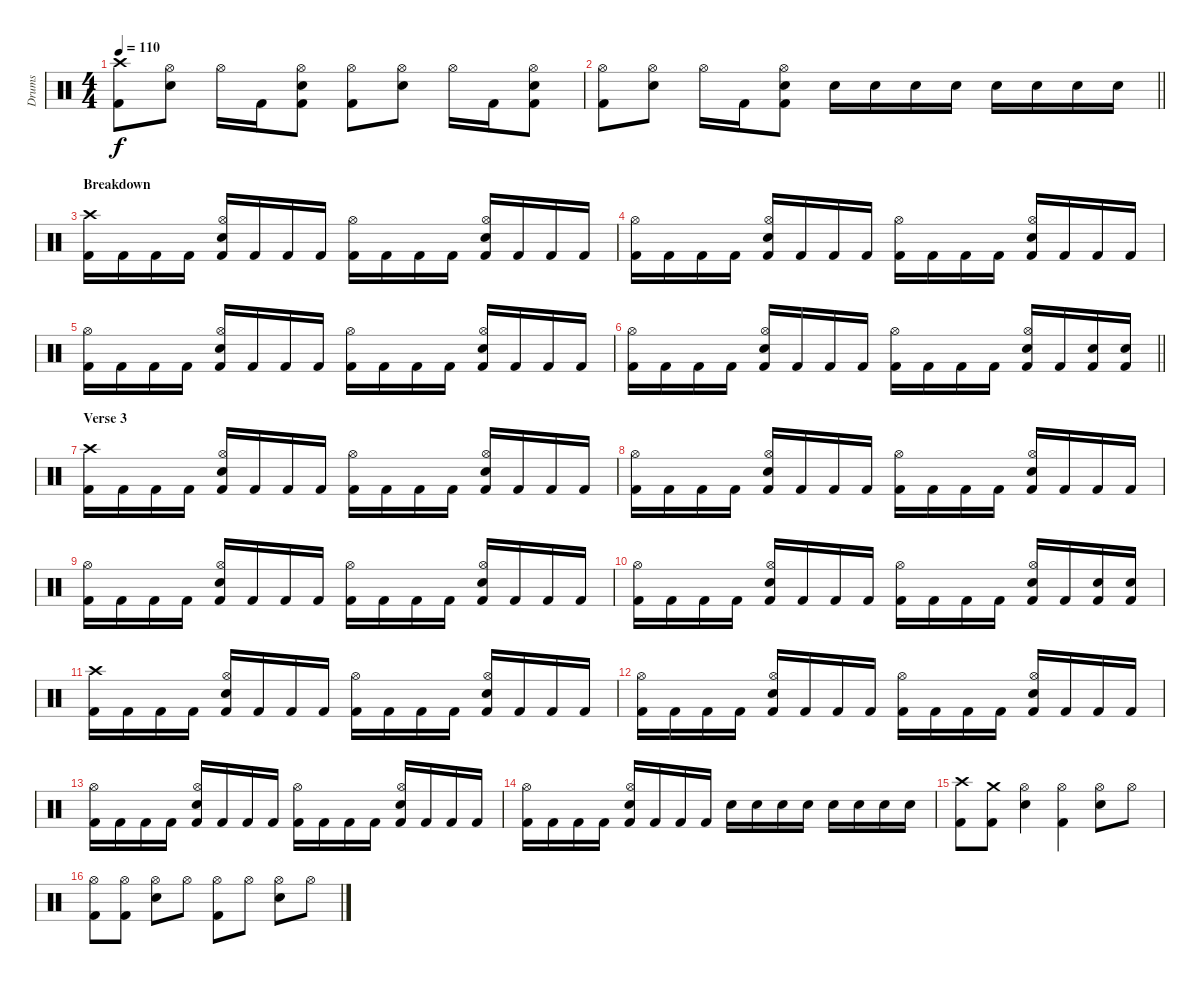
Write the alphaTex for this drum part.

\track ("Drums" "Drums") {instrument percussion}
\staff {score}
\articulation defaults
\ts (4 4)
\tempo 110
\clef neutral
\ks c
("Crash high (hit)" "Kick (hit) 2").8{dy f} ("Hi-Hat (open)" "Electric Snare (hit)").8 "Hi-Hat (open)".16 "Kick (hit) 2".16 ("Hi-Hat (open)" "Electric Snare (hit)" "Kick (hit) 2").8 ("Hi-Hat (open)" "Kick (hit) 2").8 ("Hi-Hat (open)" "Electric Snare (hit)").8 "Hi-Hat (open)".16 "Kick (hit) 2".16 ("Hi-Hat (open)" "Electric Snare (hit)" "Kick (hit) 2").8 |
\barLineRight lightlight
("Hi-Hat (open)" "Kick (hit) 2").8 ("Hi-Hat (open)" "Electric Snare (hit)").8 "Hi-Hat (open)".16 "Kick (hit) 2".16 ("Hi-Hat (open)" "Electric Snare (hit)" "Kick (hit) 2").8 "Electric Snare (hit)".16 "Electric Snare (hit)".16 "Electric Snare (hit)".16 "Electric Snare (hit)".16 "Electric Snare (hit)".16 "Electric Snare (hit)".16 "Electric Snare (hit)".16 "Electric Snare (hit)".16 |
\section ("" "Breakdown")
("Crash high (hit)" "Kick (hit) 2").16 "Kick (hit) 2".16 "Kick (hit) 2".16 "Kick (hit) 2".16 ("Hi-Hat (open)" "Electric Snare (hit)" "Kick (hit) 2").16 "Kick (hit) 2".16 "Kick (hit) 2".16 "Kick (hit) 2".16 ("Hi-Hat (open)" "Kick (hit) 2").16 "Kick (hit) 2".16 "Kick (hit) 2".16 "Kick (hit) 2".16 ("Hi-Hat (open)" "Electric Snare (hit)" "Kick (hit) 2").16 "Kick (hit) 2".16 "Kick (hit) 2".16 "Kick (hit) 2".16 |
("Hi-Hat (open)" "Kick (hit) 2").16 "Kick (hit) 2".16 "Kick (hit) 2".16 "Kick (hit) 2".16 ("Hi-Hat (open)" "Electric Snare (hit)" "Kick (hit) 2").16 "Kick (hit) 2".16 "Kick (hit) 2".16 "Kick (hit) 2".16 ("Hi-Hat (open)" "Kick (hit) 2").16 "Kick (hit) 2".16 "Kick (hit) 2".16 "Kick (hit) 2".16 ("Hi-Hat (open)" "Electric Snare (hit)" "Kick (hit) 2").16 "Kick (hit) 2".16 "Kick (hit) 2".16 "Kick (hit) 2".16 |
("Hi-Hat (open)" "Kick (hit) 2").16 "Kick (hit) 2".16 "Kick (hit) 2".16 "Kick (hit) 2".16 ("Hi-Hat (open)" "Electric Snare (hit)" "Kick (hit) 2").16 "Kick (hit) 2".16 "Kick (hit) 2".16 "Kick (hit) 2".16 ("Hi-Hat (open)" "Kick (hit) 2").16 "Kick (hit) 2".16 "Kick (hit) 2".16 "Kick (hit) 2".16 ("Hi-Hat (open)" "Electric Snare (hit)" "Kick (hit) 2").16 "Kick (hit) 2".16 "Kick (hit) 2".16 "Kick (hit) 2".16 |
\barLineRight lightlight
("Hi-Hat (open)" "Kick (hit) 2").16 "Kick (hit) 2".16 "Kick (hit) 2".16 "Kick (hit) 2".16 ("Hi-Hat (open)" "Electric Snare (hit)" "Kick (hit) 2").16 "Kick (hit) 2".16 "Kick (hit) 2".16 "Kick (hit) 2".16 ("Hi-Hat (open)" "Kick (hit) 2").16 "Kick (hit) 2".16 "Kick (hit) 2".16 "Kick (hit) 2".16 ("Hi-Hat (open)" "Electric Snare (hit)" "Kick (hit) 2").16 "Kick (hit) 2".16 ("Electric Snare (hit)" "Kick (hit) 2").16 ("Electric Snare (hit)" "Kick (hit) 2").16 |
\section ("" "Verse 3")
("Crash high (hit)" "Kick (hit) 2").16 "Kick (hit) 2".16 "Kick (hit) 2".16 "Kick (hit) 2".16 ("Hi-Hat (open)" "Electric Snare (hit)" "Kick (hit) 2").16 "Kick (hit) 2".16 "Kick (hit) 2".16 "Kick (hit) 2".16 ("Hi-Hat (open)" "Kick (hit) 2").16 "Kick (hit) 2".16 "Kick (hit) 2".16 "Kick (hit) 2".16 ("Hi-Hat (open)" "Electric Snare (hit)" "Kick (hit) 2").16 "Kick (hit) 2".16 "Kick (hit) 2".16 "Kick (hit) 2".16 |
("Hi-Hat (open)" "Kick (hit) 2").16 "Kick (hit) 2".16 "Kick (hit) 2".16 "Kick (hit) 2".16 ("Hi-Hat (open)" "Electric Snare (hit)" "Kick (hit) 2").16 "Kick (hit) 2".16 "Kick (hit) 2".16 "Kick (hit) 2".16 ("Hi-Hat (open)" "Kick (hit) 2").16 "Kick (hit) 2".16 "Kick (hit) 2".16 "Kick (hit) 2".16 ("Hi-Hat (open)" "Electric Snare (hit)" "Kick (hit) 2").16 "Kick (hit) 2".16 "Kick (hit) 2".16 "Kick (hit) 2".16 |
("Hi-Hat (open)" "Kick (hit) 2").16 "Kick (hit) 2".16 "Kick (hit) 2".16 "Kick (hit) 2".16 ("Hi-Hat (open)" "Electric Snare (hit)" "Kick (hit) 2").16 "Kick (hit) 2".16 "Kick (hit) 2".16 "Kick (hit) 2".16 ("Hi-Hat (open)" "Kick (hit) 2").16 "Kick (hit) 2".16 "Kick (hit) 2".16 "Kick (hit) 2".16 ("Hi-Hat (open)" "Electric Snare (hit)" "Kick (hit) 2").16 "Kick (hit) 2".16 "Kick (hit) 2".16 "Kick (hit) 2".16 |
("Hi-Hat (open)" "Kick (hit) 2").16 "Kick (hit) 2".16 "Kick (hit) 2".16 "Kick (hit) 2".16 ("Hi-Hat (open)" "Electric Snare (hit)" "Kick (hit) 2").16 "Kick (hit) 2".16 "Kick (hit) 2".16 "Kick (hit) 2".16 ("Hi-Hat (open)" "Kick (hit) 2").16 "Kick (hit) 2".16 "Kick (hit) 2".16 "Kick (hit) 2".16 ("Hi-Hat (open)" "Electric Snare (hit)" "Kick (hit) 2").16 "Kick (hit) 2".16 ("Electric Snare (hit)" "Kick (hit) 2").16 ("Electric Snare (hit)" "Kick (hit) 2").16 |
("Crash high (hit)" "Kick (hit) 2").16 "Kick (hit) 2".16 "Kick (hit) 2".16 "Kick (hit) 2".16 ("Hi-Hat (open)" "Electric Snare (hit)" "Kick (hit) 2").16 "Kick (hit) 2".16 "Kick (hit) 2".16 "Kick (hit) 2".16 ("Hi-Hat (open)" "Kick (hit) 2").16 "Kick (hit) 2".16 "Kick (hit) 2".16 "Kick (hit) 2".16 ("Hi-Hat (open)" "Electric Snare (hit)" "Kick (hit) 2").16 "Kick (hit) 2".16 "Kick (hit) 2".16 "Kick (hit) 2".16 |
("Hi-Hat (open)" "Kick (hit) 2").16 "Kick (hit) 2".16 "Kick (hit) 2".16 "Kick (hit) 2".16 ("Hi-Hat (open)" "Electric Snare (hit)" "Kick (hit) 2").16 "Kick (hit) 2".16 "Kick (hit) 2".16 "Kick (hit) 2".16 ("Hi-Hat (open)" "Kick (hit) 2").16 "Kick (hit) 2".16 "Kick (hit) 2".16 "Kick (hit) 2".16 ("Hi-Hat (open)" "Electric Snare (hit)" "Kick (hit) 2").16 "Kick (hit) 2".16 "Kick (hit) 2".16 "Kick (hit) 2".16 |
("Hi-Hat (open)" "Kick (hit) 2").16 "Kick (hit) 2".16 "Kick (hit) 2".16 "Kick (hit) 2".16 ("Hi-Hat (open)" "Electric Snare (hit)" "Kick (hit) 2").16 "Kick (hit) 2".16 "Kick (hit) 2".16 "Kick (hit) 2".16 ("Hi-Hat (open)" "Kick (hit) 2").16 "Kick (hit) 2".16 "Kick (hit) 2".16 "Kick (hit) 2".16 ("Hi-Hat (open)" "Electric Snare (hit)" "Kick (hit) 2").16 "Kick (hit) 2".16 "Kick (hit) 2".16 "Kick (hit) 2".16 |
("Hi-Hat (open)" "Kick (hit) 2").16 "Kick (hit) 2".16 "Kick (hit) 2".16 "Kick (hit) 2".16 ("Hi-Hat (open)" "Electric Snare (hit)" "Kick (hit) 2").16 "Kick (hit) 2".16 "Kick (hit) 2".16 "Kick (hit) 2".16 "Electric Snare (hit)".16 "Electric Snare (hit)".16 "Electric Snare (hit)".16 "Electric Snare (hit)".16 "Electric Snare (hit)".16 "Electric Snare (hit)".16 "Electric Snare (hit)".16 "Electric Snare (hit)".16 |
("Crash high (hit)" "Kick (hit) 2").8 ("Crash medium (hit)" "Kick (hit) 2").8 ("Hi-Hat (open)" "Electric Snare (hit)").4 ("Hi-Hat (open)" "Kick (hit) 2").4 ("Hi-Hat (open)" "Electric Snare (hit)").8 "Hi-Hat (open)".8 |
("Hi-Hat (open)" "Kick (hit) 2").8 ("Hi-Hat (open)" "Kick (hit) 2").8 ("Hi-Hat (open)" "Electric Snare (hit)").8 "Hi-Hat (open)".8 ("Hi-Hat (open)" "Kick (hit) 2").8 "Hi-Hat (open)".8 ("Hi-Hat (open)" "Electric Snare (hit)").8 "Hi-Hat (open)".8
